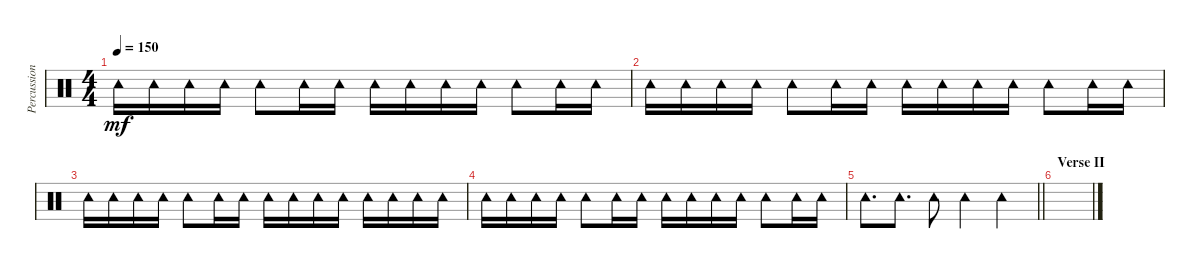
\track ("Percussion" "Percussion") {instrument percussion}
\staff {score}
\articulation defaults
\ts (4 4)
\tempo 150
\clef neutral
\ks c "Tambourine (hit)".16{dy mf} "Tambourine (hit)".16 "Tambourine (hit)".16 "Tambourine (hit)".16 "Tambourine (hit)".8 "Tambourine (hit)".16 "Tambourine (hit)".16 "Tambourine (hit)".16 "Tambourine (hit)".16 "Tambourine (hit)".16 "Tambourine (hit)".16 "Tambourine (hit)".8 "Tambourine (hit)".16 "Tambourine (hit)".16
|
"Tambourine (hit)".16 "Tambourine (hit)".16 "Tambourine (hit)".16 "Tambourine (hit)".16 "Tambourine (hit)".8 "Tambourine (hit)".16 "Tambourine (hit)".16 "Tambourine (hit)".16 "Tambourine (hit)".16 "Tambourine (hit)".16 "Tambourine (hit)".16 "Tambourine (hit)".8 "Tambourine (hit)".16 "Tambourine (hit)".16 |
"Tambourine (hit)".16 "Tambourine (hit)".16 "Tambourine (hit)".16 "Tambourine (hit)".16 "Tambourine (hit)".8 "Tambourine (hit)".16 "Tambourine (hit)".16 "Tambourine (hit)".16 "Tambourine (hit)".16 "Tambourine (hit)".16 "Tambourine (hit)".16 "Tambourine (hit)".16 "Tambourine (hit)".16 "Tambourine (hit)".16 "Tambourine (hit)".16 |
"Tambourine (hit)".16 "Tambourine (hit)".16 "Tambourine (hit)".16 "Tambourine (hit)".16 "Tambourine (hit)".8 "Tambourine (hit)".16 "Tambourine (hit)".16 "Tambourine (hit)".16 "Tambourine (hit)".16 "Tambourine (hit)".16 "Tambourine (hit)".16 "Tambourine (hit)".8 "Tambourine (hit)".16 "Tambourine (hit)".16 |
\barLineRight lightlight "Tambourine (hit)".8{d} "Tambourine (hit)".8{d} "Tambourine (hit)".8 "Tambourine (hit)".4 "Tambourine (hit)".4
|
\section ("" "Verse II")
